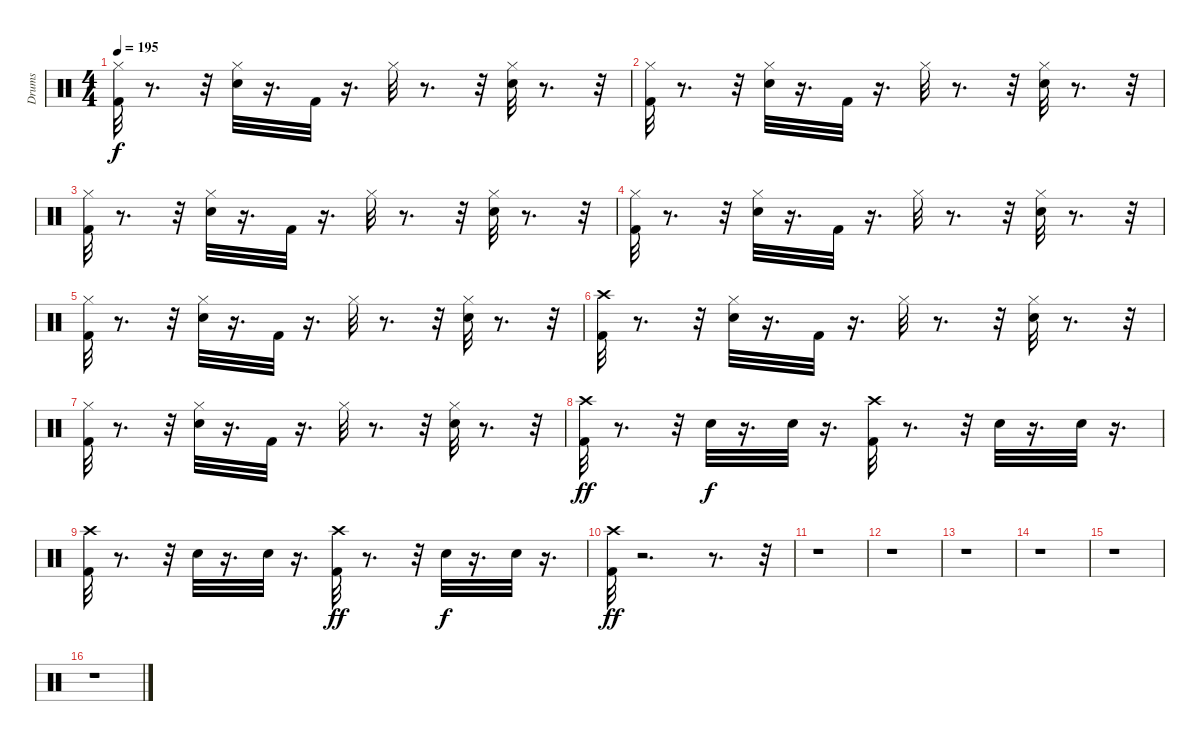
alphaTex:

\track ("Drums" "Drums") {instrument percussion}
\staff {score}
\articulation defaults
\ts (4 4)
\tempo 195
\clef neutral
\ks c
("Kick (hit) 2" "Hi-Hat (closed)").32{dy f} r.8{d} r.32 ("Snare (hit) 2" "Hi-Hat (closed)").32 r.16{d} "Kick (hit) 2".32 r.16{d} "Hi-Hat (closed)".32 r.8{d} r.32 ("Snare (hit) 2" "Hi-Hat (closed)").32 r.8{d} r.32 |
("Hi-Hat (closed)" "Kick (hit) 2").32 r.8{d} r.32 ("Hi-Hat (closed)" "Snare (hit) 2").32 r.16{d} "Kick (hit) 2".32 r.16{d} "Hi-Hat (closed)".32 r.8{d} r.32 ("Hi-Hat (closed)" "Snare (hit) 2").32 r.8{d} r.32 |
("Hi-Hat (closed)" "Kick (hit) 2").32 r.8{d} r.32 ("Hi-Hat (closed)" "Snare (hit) 2").32 r.16{d} "Kick (hit) 2".32 r.16{d} "Hi-Hat (closed)".32 r.8{d} r.32 ("Hi-Hat (closed)" "Snare (hit) 2").32 r.8{d} r.32 |
("Hi-Hat (closed)" "Kick (hit) 2").32 r.8{d} r.32 ("Hi-Hat (closed)" "Snare (hit) 2").32 r.16{d} "Kick (hit) 2".32 r.16{d} "Hi-Hat (closed)".32 r.8{d} r.32 ("Hi-Hat (closed)" "Snare (hit) 2").32 r.8{d} r.32 |
("Hi-Hat (closed)" "Kick (hit) 2").32 r.8{d} r.32 ("Hi-Hat (closed)" "Snare (hit) 2").32 r.16{d} "Kick (hit) 2".32 r.16{d} "Hi-Hat (closed)".32 r.8{d} r.32 ("Hi-Hat (closed)" "Snare (hit) 2").32 r.8{d} r.32 |
("Crash high (hit)" "Kick (hit) 2").32 r.8{d} r.32 ("Hi-Hat (closed)" "Snare (hit) 2").32 r.16{d} "Kick (hit) 2".32 r.16{d} "Hi-Hat (closed)".32 r.8{d} r.32 ("Hi-Hat (closed)" "Snare (hit) 2").32 r.8{d} r.32 |
("Hi-Hat (closed)" "Kick (hit) 2").32 r.8{d} r.32 ("Hi-Hat (closed)" "Snare (hit) 2").32 r.16{d} "Kick (hit) 2".32 r.16{d} "Hi-Hat (closed)".32 r.8{d} r.32 ("Hi-Hat (closed)" "Snare (hit) 2").32 r.8{d} r.32 |
("Crash high (hit)" "Kick (hit) 2").32{dy ff} r.8{d} r.32 "Snare (hit) 2".32{dy f} r.16{d} "Snare (hit) 2".32 r.16{d} ("Crash high (hit)" "Kick (hit) 2").32 r.8{d} r.32 "Snare (hit) 2".32 r.16{d} "Snare (hit) 2".32 r.16{d} |
("Crash high (hit)" "Kick (hit) 2").32 r.8{d} r.32 "Snare (hit) 2".32 r.16{d} "Snare (hit) 2".32 r.16{d} ("Crash high (hit)" "Kick (hit) 2").32{dy ff} r.8{d} r.32 "Snare (hit) 2".32{dy f} r.16{d} "Snare (hit) 2".32 r.16{d} |
("Crash high (hit)" "Kick (hit) 2").32{dy ff} r.2{d} r.8{d} r.32 |
r.1 |
r.1 |
r.1 |
r.1 |
r.1 |
r.1
